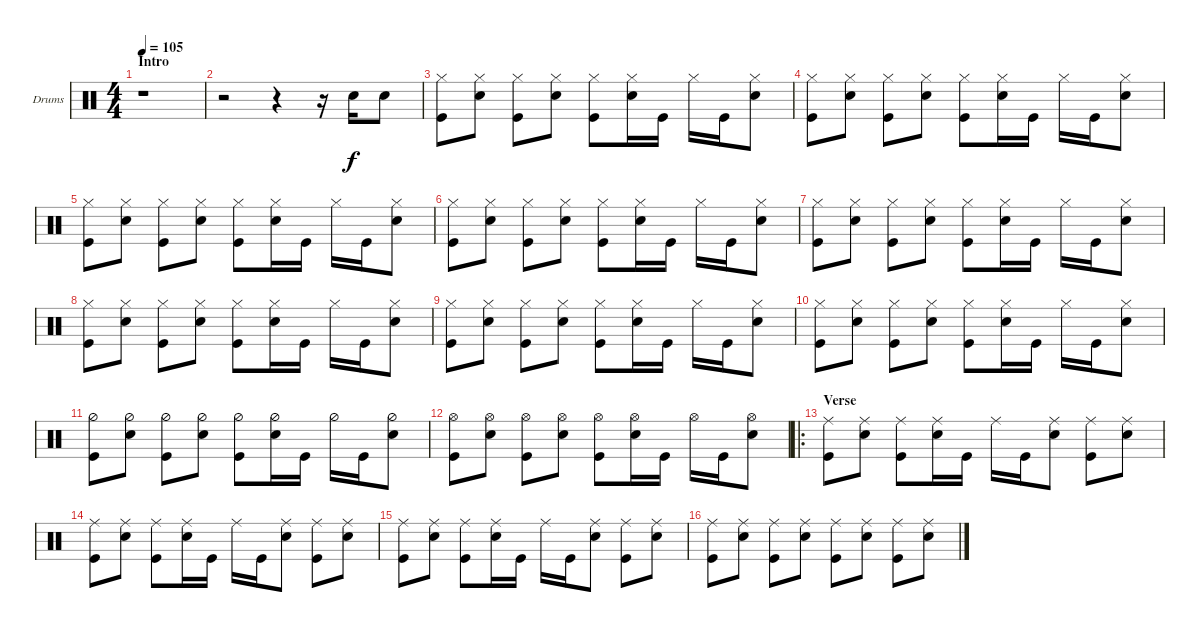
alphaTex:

\bracketExtendMode groupsimilarinstruments
\firstSystemTrackNameOrientation horizontal
\otherSystemsTrackNameOrientation horizontal
\track ("Fabrizio" "Drums") {instrument percussion}
\staff {score}
\articulation defaults
\ts (4 4)
\section ("" "Intro")
\tempo 105
\clef neutral
\ks c
r.1{dy f} |
r.2 r.4 r.16 "Snare (hit) 2".16 "Snare (hit) 2".8 |
("Kick (hit)" "Hi-Hat (closed)").8 ("Snare (hit) 2" "Hi-Hat (closed)").8 ("Kick (hit)" "Hi-Hat (closed)").8 ("Snare (hit) 2" "Hi-Hat (closed)").8 ("Kick (hit)" "Hi-Hat (closed)").8 ("Snare (hit) 2" "Hi-Hat (closed)").16 "Kick (hit)".16 "Hi-Hat (closed)".16 "Kick (hit)".16 ("Snare (hit) 2" "Hi-Hat (closed)").8 |
("Kick (hit)" "Hi-Hat (closed)").8 ("Snare (hit) 2" "Hi-Hat (closed)").8 ("Kick (hit)" "Hi-Hat (closed)").8 ("Snare (hit) 2" "Hi-Hat (closed)").8 ("Kick (hit)" "Hi-Hat (closed)").8 ("Snare (hit) 2" "Hi-Hat (closed)").16 "Kick (hit)".16 "Hi-Hat (closed)".16 "Kick (hit)".16 ("Snare (hit) 2" "Hi-Hat (closed)").8 |
("Kick (hit)" "Hi-Hat (closed)").8 ("Snare (hit) 2" "Hi-Hat (closed)").8 ("Kick (hit)" "Hi-Hat (closed)").8 ("Snare (hit) 2" "Hi-Hat (closed)").8 ("Kick (hit)" "Hi-Hat (closed)").8 ("Snare (hit) 2" "Hi-Hat (closed)").16 "Kick (hit)".16 "Hi-Hat (closed)".16 "Kick (hit)".16 ("Snare (hit) 2" "Hi-Hat (closed)").8 |
("Kick (hit)" "Hi-Hat (closed)").8 ("Snare (hit) 2" "Hi-Hat (closed)").8 ("Kick (hit)" "Hi-Hat (closed)").8 ("Snare (hit) 2" "Hi-Hat (closed)").8 ("Kick (hit)" "Hi-Hat (closed)").8 ("Snare (hit) 2" "Hi-Hat (closed)").16 "Kick (hit)".16 "Hi-Hat (closed)".16 "Kick (hit)".16 ("Snare (hit) 2" "Hi-Hat (closed)").8 |
("Kick (hit)" "Hi-Hat (closed)").8 ("Snare (hit) 2" "Hi-Hat (closed)").8 ("Kick (hit)" "Hi-Hat (closed)").8 ("Snare (hit) 2" "Hi-Hat (closed)").8 ("Kick (hit)" "Hi-Hat (closed)").8 ("Snare (hit) 2" "Hi-Hat (closed)").16 "Kick (hit)".16 "Hi-Hat (closed)".16 "Kick (hit)".16 ("Snare (hit) 2" "Hi-Hat (closed)").8 |
("Kick (hit)" "Hi-Hat (closed)").8 ("Snare (hit) 2" "Hi-Hat (closed)").8 ("Kick (hit)" "Hi-Hat (closed)").8 ("Snare (hit) 2" "Hi-Hat (closed)").8 ("Kick (hit)" "Hi-Hat (closed)").8 ("Snare (hit) 2" "Hi-Hat (closed)").16 "Kick (hit)".16 "Hi-Hat (closed)".16 "Kick (hit)".16 ("Snare (hit) 2" "Hi-Hat (closed)").8 |
("Kick (hit)" "Hi-Hat (closed)").8 ("Snare (hit) 2" "Hi-Hat (closed)").8 ("Kick (hit)" "Hi-Hat (closed)").8 ("Snare (hit) 2" "Hi-Hat (closed)").8 ("Kick (hit)" "Hi-Hat (closed)").8 ("Snare (hit) 2" "Hi-Hat (closed)").16 "Kick (hit)".16 "Hi-Hat (closed)".16 "Kick (hit)".16 ("Snare (hit) 2" "Hi-Hat (closed)").8 |
("Kick (hit)" "Hi-Hat (closed)").8 ("Snare (hit) 2" "Hi-Hat (closed)").8 ("Kick (hit)" "Hi-Hat (closed)").8 ("Snare (hit) 2" "Hi-Hat (closed)").8 ("Kick (hit)" "Hi-Hat (closed)").8 ("Snare (hit) 2" "Hi-Hat (closed)").16 "Kick (hit)".16 "Hi-Hat (closed)".16 "Kick (hit)".16 ("Snare (hit) 2" "Hi-Hat (closed)").8 |
("Kick (hit)" "Hi-Hat (half)").8 ("Snare (hit) 2" "Hi-Hat (half)").8 ("Kick (hit)" "Hi-Hat (half)").8 ("Snare (hit) 2" "Hi-Hat (half)").8 ("Kick (hit)" "Hi-Hat (half)").8 ("Snare (hit) 2" "Hi-Hat (half)").16 "Kick (hit)".16 "Hi-Hat (half)".16 "Kick (hit)".16 ("Snare (hit) 2" "Hi-Hat (half)").8 |
("Kick (hit)" "Hi-Hat (open)").8 ("Snare (hit) 2" "Hi-Hat (open)").8 ("Kick (hit)" "Hi-Hat (open)").8 ("Snare (hit) 2" "Hi-Hat (open)").8 ("Kick (hit)" "Hi-Hat (open)").8 ("Snare (hit) 2" "Hi-Hat (open)").16 "Kick (hit)".16 "Hi-Hat (open)".16 "Kick (hit)".16 ("Snare (hit) 2" "Hi-Hat (open)").8 |
\ro
\section ("" "Verse")
("Ride (middle)" "Kick (hit)").8 ("Ride (middle)" "Snare (hit) 2").8 ("Ride (middle)" "Kick (hit)").8 ("Ride (middle)" "Snare (hit) 2").16 "Kick (hit)".16 "Ride (middle)".16 "Kick (hit)".16 ("Ride (middle)" "Snare (hit) 2").8 ("Ride (middle)" "Kick (hit)").8 ("Ride (middle)" "Snare (hit) 2").8 |
("Ride (middle)" "Kick (hit)").8 ("Ride (middle)" "Snare (hit) 2").8 ("Ride (middle)" "Kick (hit)").8 ("Ride (middle)" "Snare (hit) 2").16 "Kick (hit)".16 "Ride (middle)".16 "Kick (hit)".16 ("Ride (middle)" "Snare (hit) 2").8 ("Ride (middle)" "Kick (hit)").8 ("Ride (middle)" "Snare (hit) 2").8 |
("Ride (middle)" "Kick (hit)").8 ("Ride (middle)" "Snare (hit) 2").8 ("Ride (middle)" "Kick (hit)").8 ("Ride (middle)" "Snare (hit) 2").16 "Kick (hit)".16 "Ride (middle)".16 "Kick (hit)".16 ("Ride (middle)" "Snare (hit) 2").8 ("Ride (middle)" "Kick (hit)").8 ("Ride (middle)" "Snare (hit) 2").8 |
("Ride (middle)" "Kick (hit)").8 ("Ride (middle)" "Snare (hit) 2").8 ("Ride (middle)" "Kick (hit)").8 ("Ride (middle)" "Snare (hit) 2").8 ("Ride (middle)" "Kick (hit)").8 ("Ride (middle)" "Snare (hit) 2").8 ("Ride (middle)" "Kick (hit)").8 ("Ride (middle)" "Snare (hit) 2").8
